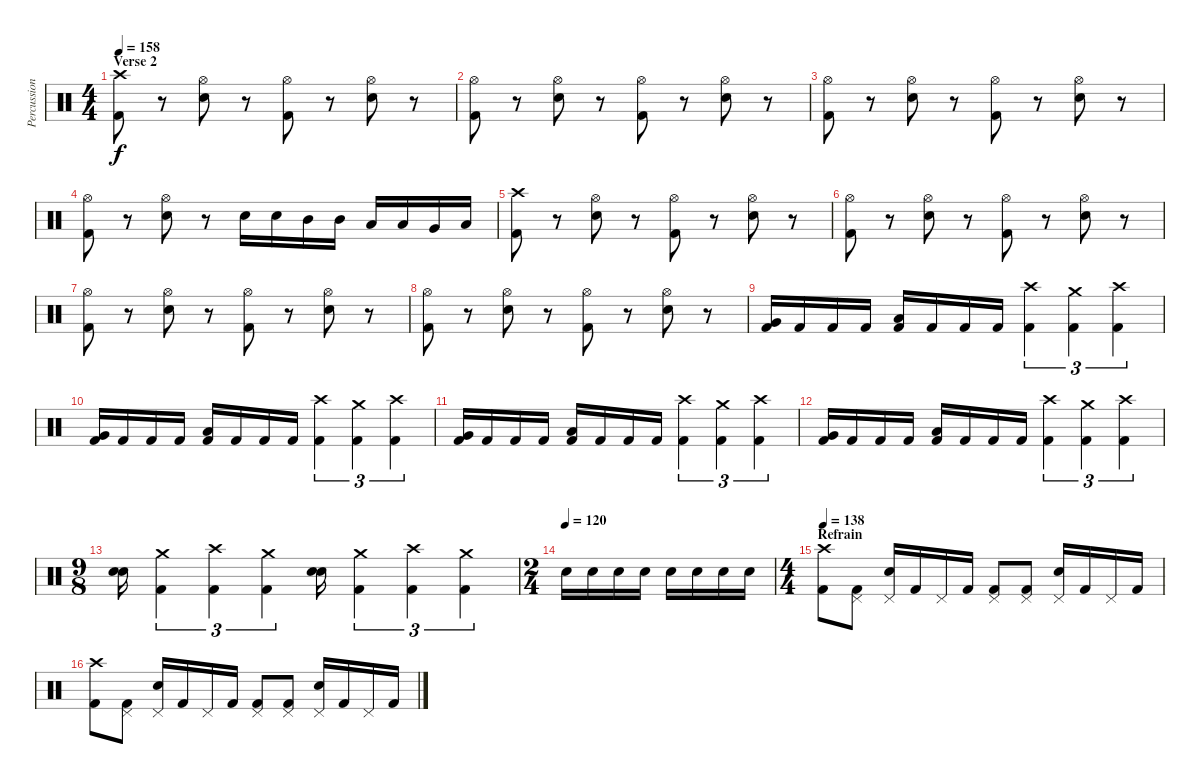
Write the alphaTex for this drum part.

\track ("Percussion" "Percussion") {instrument percussion}
\staff {score}
\articulation defaults
\ts (4 4)
\section ("" "Verse 2")
\tempo 158
\clef neutral
\ks c
("Crash high (hit)" "Kick (hit) 2").8{dy f} r.8 ("Hi-Hat (open)" "Snare (hit) 2").8 r.8 ("Hi-Hat (open)" "Kick (hit) 2").8 r.8 ("Hi-Hat (open)" "Snare (hit) 2").8 r.8 |
("Hi-Hat (open)" "Kick (hit) 2").8 r.8 ("Hi-Hat (open)" "Snare (hit) 2").8 r.8 ("Hi-Hat (open)" "Kick (hit) 2").8 r.8 ("Hi-Hat (open)" "Snare (hit) 2").8 r.8 |
("Hi-Hat (open)" "Kick (hit) 2").8 r.8 ("Hi-Hat (open)" "Snare (hit) 2").8 r.8 ("Hi-Hat (open)" "Kick (hit) 2").8 r.8 ("Hi-Hat (open)" "Snare (hit) 2").8 r.8 |
("Hi-Hat (open)" "Kick (hit) 2").8 r.8 ("Hi-Hat (open)" "Snare (hit) 2").8 r.8 "Snare (hit) 2".16 "Snare (hit) 2".16 "Mid Tom (hit)".16 "Mid Tom (hit)".16 "Low Tom (hit)".16 "Low Tom (hit)".16 "Very Low Tom (hit)".16 "Low Floor Tom (hit)".16 |
("Crash high (hit)" "Kick (hit) 2").8 r.8 ("Hi-Hat (open)" "Snare (hit) 2").8 r.8 ("Hi-Hat (open)" "Kick (hit) 2").8 r.8 ("Hi-Hat (open)" "Snare (hit) 2").8 r.8 |
("Hi-Hat (open)" "Kick (hit) 2").8 r.8 ("Hi-Hat (open)" "Snare (hit) 2").8 r.8 ("Hi-Hat (open)" "Kick (hit) 2").8 r.8 ("Hi-Hat (open)" "Snare (hit) 2").8 r.8 |
("Hi-Hat (open)" "Kick (hit) 2").8 r.8 ("Hi-Hat (open)" "Snare (hit) 2").8 r.8 ("Hi-Hat (open)" "Kick (hit) 2").8 r.8 ("Hi-Hat (open)" "Snare (hit) 2").8 r.8 |
("Hi-Hat (open)" "Kick (hit) 2").8 r.8 ("Hi-Hat (open)" "Snare (hit) 2").8 r.8 ("Hi-Hat (open)" "Kick (hit) 2").8 r.8 ("Hi-Hat (open)" "Snare (hit) 2").8 r.8 |
("Very Low Tom (hit)" "Kick (hit) 2").16 "Kick (hit) 2".16 "Kick (hit) 2".16 "Kick (hit) 2".16 ("Low Floor Tom (hit)" "Kick (hit) 2").16 "Kick (hit) 2".16 "Kick (hit) 2".16 "Kick (hit) 2".16 ("Crash high (hit)" "Kick (hit) 2").4{tu (3 2)} ("Crash medium (hit)" "Kick (hit) 2").4{tu (3 2)} ("Crash high (hit)" "Kick (hit) 2").4{tu (3 2)} |
("Very Low Tom (hit)" "Kick (hit) 2").16 "Kick (hit) 2".16 "Kick (hit) 2".16 "Kick (hit) 2".16 ("Low Floor Tom (hit)" "Kick (hit) 2").16 "Kick (hit) 2".16 "Kick (hit) 2".16 "Kick (hit) 2".16 ("Crash high (hit)" "Kick (hit) 2").4{tu (3 2)} ("Crash medium (hit)" "Kick (hit) 2").4{tu (3 2)} ("Crash high (hit)" "Kick (hit) 2").4{tu (3 2)} |
("Very Low Tom (hit)" "Kick (hit) 2").16 "Kick (hit) 2".16 "Kick (hit) 2".16 "Kick (hit) 2".16 ("Low Floor Tom (hit)" "Kick (hit) 2").16 "Kick (hit) 2".16 "Kick (hit) 2".16 "Kick (hit) 2".16 ("Crash high (hit)" "Kick (hit) 2").4{tu (3 2)} ("Crash medium (hit)" "Kick (hit) 2").4{tu (3 2)} ("Crash high (hit)" "Kick (hit) 2").4{tu (3 2)} |
("Very Low Tom (hit)" "Kick (hit) 2").16 "Kick (hit) 2".16 "Kick (hit) 2".16 "Kick (hit) 2".16 ("Low Floor Tom (hit)" "Kick (hit) 2").16 "Kick (hit) 2".16 "Kick (hit) 2".16 "Kick (hit) 2".16 ("Crash high (hit)" "Kick (hit) 2").4{tu (3 2)} ("Crash medium (hit)" "Kick (hit) 2").4{tu (3 2)} ("Crash high (hit)" "Kick (hit) 2").4{tu (3 2)} |
\ts (9 8)
("Snare (hit) 2" "Snare (hit) 2").16 ("Crash medium (hit)" "Kick (hit) 2").4{tu (3 2)} ("Crash high (hit)" "Kick (hit) 2").4{tu (3 2)} ("Crash medium (hit)" "Kick (hit) 2").4{tu (3 2)} ("Snare (hit) 2" "Snare (hit) 2").16 ("Crash medium (hit)" "Kick (hit) 2").4{tu (3 2)} ("Crash high (hit)" "Kick (hit) 2").4{tu (3 2)} ("Crash medium (hit)" "Kick (hit) 2").4{tu (3 2)} |
\ts (2 4)
\tempo (120)
"Snare (hit) 2".16 "Snare (hit) 2".16 "Snare (hit) 2".16 "Snare (hit) 2".16 "Snare (hit) 2".16 "Snare (hit) 2".16 "Snare (hit) 2".16 "Snare (hit) 2".16 |
\ts (4 4)
\section ("" "Refrain")
\tempo 138
("Crash high (hit)" "Kick (hit) 2").8 ("Pedal Hi-Hat (hit)" "Kick (hit) 2").8 ("Pedal Hi-Hat (hit)" "Snare (hit) 2").16 "Kick (hit) 2".16 "Pedal Hi-Hat (hit)".16 "Kick (hit) 2".16 ("Pedal Hi-Hat (hit)" "Kick (hit) 2").8 ("Pedal Hi-Hat (hit)" "Kick (hit) 2").8 ("Pedal Hi-Hat (hit)" "Snare (hit) 2").16 "Kick (hit) 2".16 "Pedal Hi-Hat (hit)".16 "Kick (hit) 2".16 |
("Crash high (hit)" "Kick (hit) 2").8 ("Pedal Hi-Hat (hit)" "Kick (hit) 2").8 ("Pedal Hi-Hat (hit)" "Snare (hit) 2").16 "Kick (hit) 2".16 "Pedal Hi-Hat (hit)".16 "Kick (hit) 2".16 ("Pedal Hi-Hat (hit)" "Kick (hit) 2").8 ("Pedal Hi-Hat (hit)" "Kick (hit) 2").8 ("Pedal Hi-Hat (hit)" "Snare (hit) 2").16 "Kick (hit) 2".16 "Pedal Hi-Hat (hit)".16 "Kick (hit) 2".16
